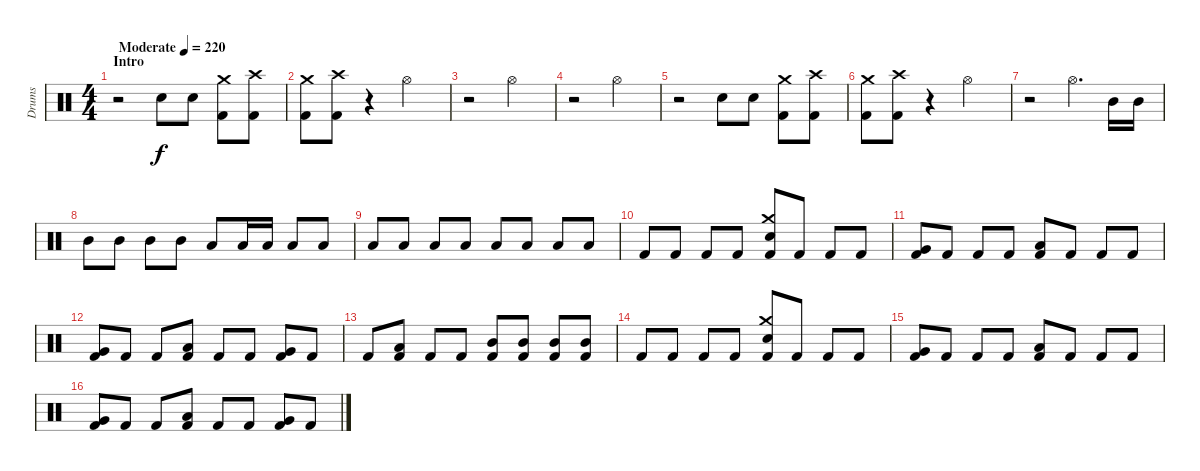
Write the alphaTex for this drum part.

\track ("Drums" "Drums") {instrument percussion}
\staff {score}
\articulation defaults
\ts (4 4)
\section ("" "Intro")
\tempo (220 "Moderate")
\clef neutral
\ks c
r.2{dy f} "Electric Snare (hit)".8 "Electric Snare (hit)".8 ("Crash medium (hit)" "Kick (hit) 2").8 ("Crash high (hit)" "Kick (hit) 2").8 |
("Kick (hit) 2" "Crash medium (hit)").8 ("Crash high (hit)" "Kick (hit) 2").8 r.4 "Hi-Hat (open)".2 |
r.2 "Hi-Hat (open)".2 |
r.2 "Hi-Hat (open)".2 |
r.2 "Electric Snare (hit)".8 "Electric Snare (hit)".8 ("Crash medium (hit)" "Kick (hit) 2").8 ("Crash high (hit)" "Kick (hit) 2").8 |
("Kick (hit) 2" "Crash medium (hit)").8 ("Crash high (hit)" "Kick (hit) 2").8 r.4 "Hi-Hat (open)".2 |
r.2 "Hi-Hat (open)".4{d} "Mid Tom (hit)".16 "Mid Tom (hit)".16 |
"Mid Tom (hit)".8 "Mid Tom (hit)".8 "Mid Tom (hit)".8 "Mid Tom (hit)".8 "Low Tom (hit)".8 "Low Tom (hit)".16 "Low Tom (hit)".16 "Low Tom (hit)".8 "Low Tom (hit)".8 |
"Low Tom (hit)".8 "Low Floor Tom (hit)".8 "Low Floor Tom (hit)".8 "Low Floor Tom (hit)".8 "Low Floor Tom (hit)".8 "Low Floor Tom (hit)".8 "Low Floor Tom (hit)".8 "Low Floor Tom (hit)".8 |
"Kick (hit) 2".8 "Kick (hit) 2".8 "Kick (hit) 2".8 "Kick (hit) 2".8 ("Crash medium (hit)" "Electric Snare (hit)" "Kick (hit) 2").8 "Kick (hit) 2".8 "Kick (hit) 2".8 "Kick (hit) 2".8 |
("Very Low Tom (hit)" "Kick (hit) 2").8 "Kick (hit) 2".8 "Kick (hit) 2".8 "Kick (hit) 2".8 ("Low Tom (hit)" "Kick (hit) 2").8 "Kick (hit) 2".8 "Kick (hit) 2".8 "Kick (hit) 2".8 |
("Very Low Tom (hit)" "Kick (hit) 2").8 "Kick (hit) 2".8 "Kick (hit) 2".8 ("Low Tom (hit)" "Kick (hit) 2").8 "Kick (hit) 2".8 "Kick (hit) 2".8 ("Very Low Tom (hit)" "Kick (hit) 2").8 "Kick (hit) 2".8 |
"Kick (hit) 2".8 ("Low Tom (hit)" "Kick (hit) 2").8 "Kick (hit) 2".8 "Kick (hit) 2".8 ("Mid Tom (hit)" "Kick (hit) 2").8 ("Mid Tom (hit)" "Kick (hit) 2").8 ("Mid Tom (hit)" "Kick (hit) 2").8 ("Mid Tom (hit)" "Kick (hit) 2").8 |
"Kick (hit) 2".8 "Kick (hit) 2".8 "Kick (hit) 2".8 "Kick (hit) 2".8 ("Crash medium (hit)" "Electric Snare (hit)" "Kick (hit) 2").8 "Kick (hit) 2".8 "Kick (hit) 2".8 "Kick (hit) 2".8 |
("Very Low Tom (hit)" "Kick (hit) 2").8 "Kick (hit) 2".8 "Kick (hit) 2".8 "Kick (hit) 2".8 ("Low Tom (hit)" "Kick (hit) 2").8 "Kick (hit) 2".8 "Kick (hit) 2".8 "Kick (hit) 2".8 |
("Very Low Tom (hit)" "Kick (hit) 2").8 "Kick (hit) 2".8 "Kick (hit) 2".8 ("Low Tom (hit)" "Kick (hit) 2").8 "Kick (hit) 2".8 "Kick (hit) 2".8 ("Very Low Tom (hit)" "Kick (hit) 2").8 "Kick (hit) 2".8
